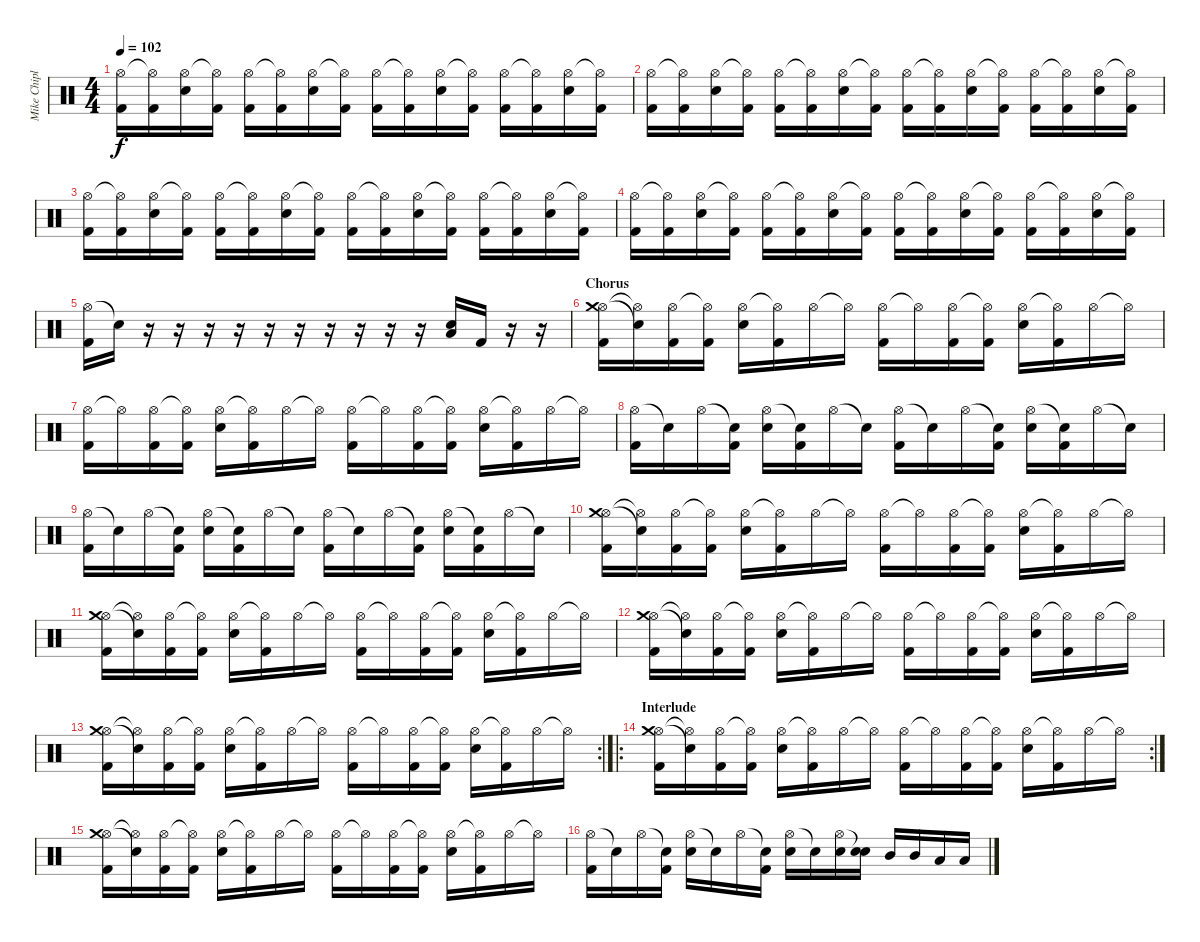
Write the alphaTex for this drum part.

\track ("Mike Chiplin" "Mike Chipl") {instrument percussion}
\staff {score}
\articulation defaults
\ts (4 4)
\tempo 102
\clef neutral
\ks c
("Hi-Hat (open)" "Kick (hit) 2").16{dy f} ("Hi-Hat (open)"{t} "Kick (hit) 2").16 ("Hi-Hat (open)" "Electric Snare (hit)").16 ("Hi-Hat (open)"{t} "Kick (hit) 2").16 ("Hi-Hat (open)" "Kick (hit) 2").16 ("Hi-Hat (open)"{t} "Kick (hit) 2").16 ("Hi-Hat (open)" "Electric Snare (hit)").16 ("Hi-Hat (open)"{t} "Kick (hit) 2").16 ("Hi-Hat (open)" "Kick (hit) 2").16 ("Hi-Hat (open)"{t} "Kick (hit) 2").16 ("Hi-Hat (open)" "Electric Snare (hit)").16 ("Hi-Hat (open)"{t} "Kick (hit) 2").16 ("Hi-Hat (open)" "Kick (hit) 2").16 ("Hi-Hat (open)"{t} "Kick (hit) 2").16 ("Hi-Hat (open)" "Electric Snare (hit)").16 ("Hi-Hat (open)"{t} "Kick (hit) 2").16 |
("Hi-Hat (open)" "Kick (hit) 2").16 ("Hi-Hat (open)"{t} "Kick (hit) 2").16 ("Hi-Hat (open)" "Electric Snare (hit)").16 ("Hi-Hat (open)"{t} "Kick (hit) 2").16 ("Hi-Hat (open)" "Kick (hit) 2").16 ("Hi-Hat (open)"{t} "Kick (hit) 2").16 ("Hi-Hat (open)" "Electric Snare (hit)").16 ("Hi-Hat (open)"{t} "Kick (hit) 2").16 ("Hi-Hat (open)" "Kick (hit) 2").16 ("Hi-Hat (open)"{t} "Kick (hit) 2").16 ("Hi-Hat (open)" "Electric Snare (hit)").16 ("Hi-Hat (open)"{t} "Kick (hit) 2").16 ("Hi-Hat (open)" "Kick (hit) 2").16 ("Hi-Hat (open)"{t} "Kick (hit) 2").16 ("Hi-Hat (open)" "Electric Snare (hit)").16 ("Hi-Hat (open)"{t} "Kick (hit) 2").16 |
("Hi-Hat (open)" "Kick (hit) 2").16 ("Hi-Hat (open)"{t} "Kick (hit) 2").16 ("Hi-Hat (open)" "Electric Snare (hit)").16 ("Hi-Hat (open)"{t} "Kick (hit) 2").16 ("Hi-Hat (open)" "Kick (hit) 2").16 ("Hi-Hat (open)"{t} "Kick (hit) 2").16 ("Hi-Hat (open)" "Electric Snare (hit)").16 ("Hi-Hat (open)"{t} "Kick (hit) 2").16 ("Hi-Hat (open)" "Kick (hit) 2").16 ("Hi-Hat (open)"{t} "Kick (hit) 2").16 ("Hi-Hat (open)" "Electric Snare (hit)").16 ("Hi-Hat (open)"{t} "Kick (hit) 2").16 ("Hi-Hat (open)" "Kick (hit) 2").16 ("Hi-Hat (open)"{t} "Kick (hit) 2").16 ("Hi-Hat (open)" "Electric Snare (hit)").16 ("Hi-Hat (open)"{t} "Kick (hit) 2").16 |
("Hi-Hat (open)" "Kick (hit) 2").16 ("Hi-Hat (open)"{t} "Kick (hit) 2").16 ("Hi-Hat (open)" "Electric Snare (hit)").16 ("Hi-Hat (open)"{t} "Kick (hit) 2").16 ("Hi-Hat (open)" "Kick (hit) 2").16 ("Hi-Hat (open)"{t} "Kick (hit) 2").16 ("Hi-Hat (open)" "Electric Snare (hit)").16 ("Hi-Hat (open)"{t} "Kick (hit) 2").16 ("Hi-Hat (open)" "Kick (hit) 2").16 ("Hi-Hat (open)"{t} "Kick (hit) 2").16 ("Hi-Hat (open)" "Electric Snare (hit)").16 ("Hi-Hat (open)"{t} "Kick (hit) 2").16 ("Hi-Hat (open)" "Kick (hit) 2").16 ("Hi-Hat (open)"{t} "Kick (hit) 2").16 ("Hi-Hat (open)" "Electric Snare (hit)").16 ("Hi-Hat (open)"{t} "Kick (hit) 2").16 |
("Hi-Hat (open)" "Kick (hit) 2").16 "Snare (hit)"{t}.16 r.16 r.16 r.16 r.16 r.16 r.16 r.16 r.16 r.16 r.16 ("Electric Snare (hit)" "Low Floor Tom (hit)").16 "Kick (hit) 2".16 r.16 r.16 |
\section ("" "Chorus")
("Hi-Hat (open)" "Crash medium (hit)" "Kick (hit) 2").16 ("Hi-Hat (open)"{t} "Snare (hit)"{t}).16 ("Hi-Hat (open)" "Kick (hit) 2").16 ("Hi-Hat (open)"{t} "Kick (hit) 2").16 ("Hi-Hat (open)" "Electric Snare (hit)").16 ("Hi-Hat (open)"{t} "Kick (hit) 2").16 "Hi-Hat (open)".16 "Hi-Hat (open)"{t}.16 ("Hi-Hat (open)" "Kick (hit) 2").16 "Hi-Hat (open)"{t}.16 ("Hi-Hat (open)" "Kick (hit) 2").16 ("Hi-Hat (open)"{t} "Kick (hit) 2").16 ("Hi-Hat (open)" "Electric Snare (hit)").16 ("Hi-Hat (open)"{t} "Kick (hit) 2").16 "Hi-Hat (open)".16 "Hi-Hat (open)"{t}.16 |
("Hi-Hat (open)" "Kick (hit) 2").16 "Hi-Hat (open)"{t}.16 ("Hi-Hat (open)" "Kick (hit) 2").16 ("Hi-Hat (open)"{t} "Kick (hit) 2").16 ("Hi-Hat (open)" "Electric Snare (hit)").16 ("Hi-Hat (open)"{t} "Kick (hit) 2").16 "Hi-Hat (open)".16 "Hi-Hat (open)"{t}.16 ("Hi-Hat (open)" "Kick (hit) 2").16 "Hi-Hat (open)"{t}.16 ("Hi-Hat (open)" "Kick (hit) 2").16 ("Hi-Hat (open)"{t} "Kick (hit) 2").16 ("Hi-Hat (open)" "Electric Snare (hit)").16 ("Hi-Hat (open)"{t} "Kick (hit) 2").16 "Hi-Hat (open)".16 "Hi-Hat (open)"{t}.16 |
("Hi-Hat (open)" "Kick (hit) 2").16 "Snare (hit)"{t}.16 "Hi-Hat (open)".16 ("Snare (hit)"{t} "Kick (hit) 2").16 ("Hi-Hat (open)" "Electric Snare (hit)").16 ("Snare (hit)"{t} "Kick (hit) 2").16 "Hi-Hat (open)".16 "Snare (hit)"{t}.16 ("Hi-Hat (open)" "Kick (hit) 2").16 "Snare (hit)"{t}.16 "Hi-Hat (open)".16 ("Snare (hit)"{t} "Kick (hit) 2").16 ("Hi-Hat (open)" "Electric Snare (hit)").16 ("Snare (hit)"{t} "Kick (hit) 2").16 "Hi-Hat (open)".16 "Snare (hit)"{t}.16 |
("Hi-Hat (open)" "Kick (hit) 2").16 "Snare (hit)"{t}.16 "Hi-Hat (open)".16 ("Snare (hit)"{t} "Kick (hit) 2").16 ("Hi-Hat (open)" "Electric Snare (hit)").16 ("Snare (hit)"{t} "Kick (hit) 2").16 "Hi-Hat (open)".16 "Snare (hit)"{t}.16 ("Hi-Hat (open)" "Kick (hit) 2").16 "Snare (hit)"{t}.16 "Hi-Hat (open)".16 ("Snare (hit)"{t} "Kick (hit) 2").16 ("Hi-Hat (open)" "Electric Snare (hit)").16 ("Snare (hit)"{t} "Kick (hit) 2").16 "Hi-Hat (open)".16 "Snare (hit)"{t}.16 |
("Hi-Hat (open)" "Crash medium (hit)" "Kick (hit) 2").16 ("Hi-Hat (open)"{t} "Snare (hit)"{t}).16 ("Hi-Hat (open)" "Kick (hit) 2").16 ("Hi-Hat (open)"{t} "Kick (hit) 2").16 ("Hi-Hat (open)" "Electric Snare (hit)").16 ("Hi-Hat (open)"{t} "Kick (hit) 2").16 "Hi-Hat (open)".16 "Hi-Hat (open)"{t}.16 ("Hi-Hat (open)" "Kick (hit) 2").16 "Hi-Hat (open)"{t}.16 ("Hi-Hat (open)" "Kick (hit) 2").16 ("Hi-Hat (open)"{t} "Kick (hit) 2").16 ("Hi-Hat (open)" "Electric Snare (hit)").16 ("Hi-Hat (open)"{t} "Kick (hit) 2").16 "Hi-Hat (open)".16 "Hi-Hat (open)"{t}.16 |
("Hi-Hat (open)" "Crash medium (hit)" "Kick (hit) 2").16 ("Hi-Hat (open)"{t} "Snare (hit)"{t}).16 ("Hi-Hat (open)" "Kick (hit) 2").16 ("Hi-Hat (open)"{t} "Kick (hit) 2").16 ("Hi-Hat (open)" "Electric Snare (hit)").16 ("Hi-Hat (open)"{t} "Kick (hit) 2").16 "Hi-Hat (open)".16 "Hi-Hat (open)"{t}.16 ("Hi-Hat (open)" "Kick (hit) 2").16 "Hi-Hat (open)"{t}.16 ("Hi-Hat (open)" "Kick (hit) 2").16 ("Hi-Hat (open)"{t} "Kick (hit) 2").16 ("Hi-Hat (open)" "Electric Snare (hit)").16 ("Hi-Hat (open)"{t} "Kick (hit) 2").16 "Hi-Hat (open)".16 "Hi-Hat (open)"{t}.16 |
("Hi-Hat (open)" "Crash medium (hit)" "Kick (hit) 2").16 ("Hi-Hat (open)"{t} "Snare (hit)"{t}).16 ("Hi-Hat (open)" "Kick (hit) 2").16 ("Hi-Hat (open)"{t} "Kick (hit) 2").16 ("Hi-Hat (open)" "Electric Snare (hit)").16 ("Hi-Hat (open)"{t} "Kick (hit) 2").16 "Hi-Hat (open)".16 "Hi-Hat (open)"{t}.16 ("Hi-Hat (open)" "Kick (hit) 2").16 "Hi-Hat (open)"{t}.16 ("Hi-Hat (open)" "Kick (hit) 2").16 ("Hi-Hat (open)"{t} "Kick (hit) 2").16 ("Hi-Hat (open)" "Electric Snare (hit)").16 ("Hi-Hat (open)"{t} "Kick (hit) 2").16 "Hi-Hat (open)".16 "Hi-Hat (open)"{t}.16 |
\rc 2
("Hi-Hat (open)" "Crash medium (hit)" "Kick (hit) 2").16 ("Hi-Hat (open)"{t} "Snare (hit)"{t}).16 ("Hi-Hat (open)" "Kick (hit) 2").16 ("Hi-Hat (open)"{t} "Kick (hit) 2").16 ("Hi-Hat (open)" "Electric Snare (hit)").16 ("Hi-Hat (open)"{t} "Kick (hit) 2").16 "Hi-Hat (open)".16 "Hi-Hat (open)"{t}.16 ("Hi-Hat (open)" "Kick (hit) 2").16 "Hi-Hat (open)"{t}.16 ("Hi-Hat (open)" "Kick (hit) 2").16 ("Hi-Hat (open)"{t} "Kick (hit) 2").16 ("Hi-Hat (open)" "Electric Snare (hit)").16 ("Hi-Hat (open)"{t} "Kick (hit) 2").16 "Hi-Hat (open)".16 "Hi-Hat (open)"{t}.16 |
\ro
\rc 2
\section ("" "Interlude")
("Hi-Hat (open)" "Crash medium (hit)" "Kick (hit) 2").16 ("Hi-Hat (open)"{t} "Snare (hit)"{t}).16 ("Hi-Hat (open)" "Kick (hit) 2").16 ("Hi-Hat (open)"{t} "Kick (hit) 2").16 ("Hi-Hat (open)" "Electric Snare (hit)").16 ("Hi-Hat (open)"{t} "Kick (hit) 2").16 "Hi-Hat (open)".16 "Hi-Hat (open)"{t}.16 ("Hi-Hat (open)" "Kick (hit) 2").16 "Hi-Hat (open)"{t}.16 ("Hi-Hat (open)" "Kick (hit) 2").16 ("Hi-Hat (open)"{t} "Kick (hit) 2").16 ("Hi-Hat (open)" "Electric Snare (hit)").16 ("Hi-Hat (open)"{t} "Kick (hit) 2").16 "Hi-Hat (open)".16 "Hi-Hat (open)"{t}.16 |
("Hi-Hat (open)" "Crash medium (hit)" "Kick (hit) 2").16 ("Hi-Hat (open)"{t} "Snare (hit)"{t}).16 ("Hi-Hat (open)" "Kick (hit) 2").16 ("Hi-Hat (open)"{t} "Kick (hit) 2").16 ("Hi-Hat (open)" "Electric Snare (hit)").16 ("Hi-Hat (open)"{t} "Kick (hit) 2").16 "Hi-Hat (open)".16 "Hi-Hat (open)"{t}.16 ("Hi-Hat (open)" "Kick (hit) 2").16 "Hi-Hat (open)"{t}.16 ("Hi-Hat (open)" "Kick (hit) 2").16 ("Hi-Hat (open)"{t} "Kick (hit) 2").16 ("Hi-Hat (open)" "Electric Snare (hit)").16 ("Hi-Hat (open)"{t} "Kick (hit) 2").16 "Hi-Hat (open)".16 "Hi-Hat (open)"{t}.16 |
("Hi-Hat (open)" "Kick (hit) 2").16 "Snare (hit)"{t}.16 "Hi-Hat (open)".16 ("Snare (hit)"{t} "Kick (hit) 2").16 ("Hi-Hat (open)" "Electric Snare (hit)").16 "Snare (hit)"{t}.16 "Hi-Hat (open)".16 ("Snare (hit)"{t} "Kick (hit) 2").16 ("Hi-Hat (open)" "Electric Snare (hit)").16 "Snare (hit)"{t}.16 ("Hi-Hat (open)" "Electric Snare (hit)").16 ("Snare (hit)"{t} "Electric Snare (hit)").16 "Mid Tom (hit)".16 "Mid Tom (hit)".16 "Low Floor Tom (hit)".16 "Low Floor Tom (hit)".16
